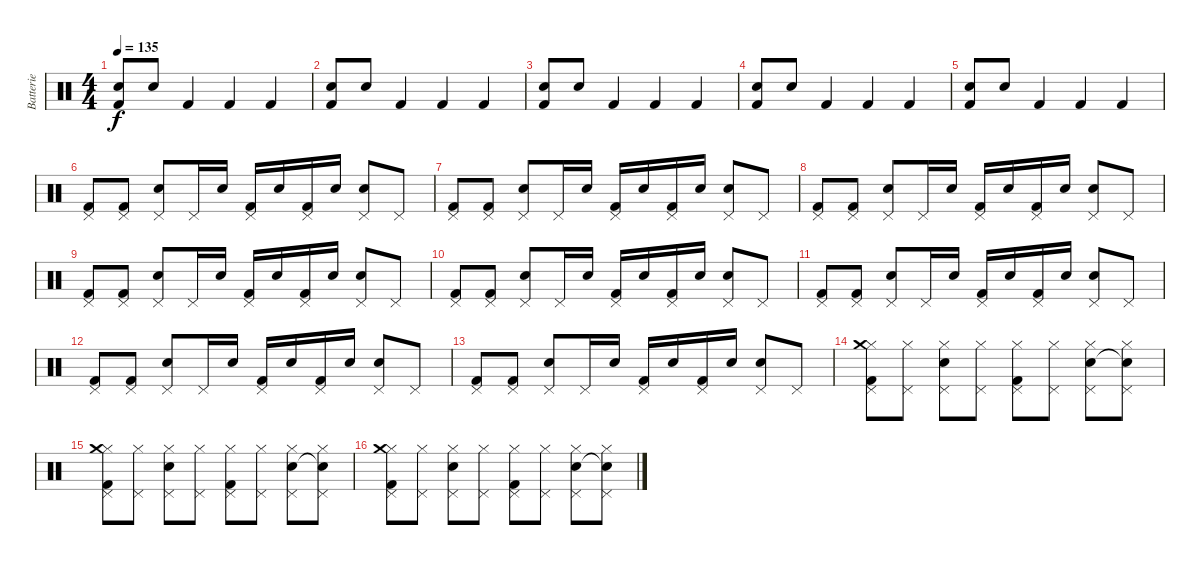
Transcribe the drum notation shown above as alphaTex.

\track ("Batterie" "Batterie") {instrument percussion}
\staff {score}
\articulation defaults
\ts (4 4)
\tempo 135
\clef neutral
\ks c
("Electric Snare (hit)" "Kick (hit) 2").8{dy f} "Electric Snare (hit)".8 "Kick (hit) 2".4 "Kick (hit) 2".4 "Kick (hit) 2".4 |
("Electric Snare (hit)" "Kick (hit) 2").8 "Electric Snare (hit)".8 "Kick (hit) 2".4 "Kick (hit) 2".4 "Kick (hit) 2".4 |
("Electric Snare (hit)" "Kick (hit) 2").8 "Electric Snare (hit)".8 "Kick (hit) 2".4 "Kick (hit) 2".4 "Kick (hit) 2".4 |
("Electric Snare (hit)" "Kick (hit) 2").8 "Electric Snare (hit)".8 "Kick (hit) 2".4 "Kick (hit) 2".4 "Kick (hit) 2".4 |
("Electric Snare (hit)" "Kick (hit) 2").8 "Electric Snare (hit)".8 "Kick (hit) 2".4 "Kick (hit) 2".4 "Kick (hit) 2".4 |
("Pedal Hi-Hat (hit)" "Kick (hit) 2").8 ("Pedal Hi-Hat (hit)" "Kick (hit) 2").8 ("Pedal Hi-Hat (hit)" "Electric Snare (hit)").8 "Pedal Hi-Hat (hit)".16 "Electric Snare (hit)".16 ("Pedal Hi-Hat (hit)" "Kick (hit) 2").16 "Electric Snare (hit)".16 ("Pedal Hi-Hat (hit)" "Kick (hit) 2").16 "Electric Snare (hit)".16 ("Pedal Hi-Hat (hit)" "Electric Snare (hit)").8 "Pedal Hi-Hat (hit)".8 |
("Pedal Hi-Hat (hit)" "Kick (hit) 2").8 ("Pedal Hi-Hat (hit)" "Kick (hit) 2").8 ("Pedal Hi-Hat (hit)" "Electric Snare (hit)").8 "Pedal Hi-Hat (hit)".16 "Electric Snare (hit)".16 ("Pedal Hi-Hat (hit)" "Kick (hit) 2").16 "Electric Snare (hit)".16 ("Pedal Hi-Hat (hit)" "Kick (hit) 2").16 "Electric Snare (hit)".16 ("Pedal Hi-Hat (hit)" "Electric Snare (hit)").8 "Pedal Hi-Hat (hit)".8 |
("Pedal Hi-Hat (hit)" "Kick (hit) 2").8 ("Pedal Hi-Hat (hit)" "Kick (hit) 2").8 ("Pedal Hi-Hat (hit)" "Electric Snare (hit)").8 "Pedal Hi-Hat (hit)".16 "Electric Snare (hit)".16 ("Pedal Hi-Hat (hit)" "Kick (hit) 2").16 "Electric Snare (hit)".16 ("Pedal Hi-Hat (hit)" "Kick (hit) 2").16 "Electric Snare (hit)".16 ("Pedal Hi-Hat (hit)" "Electric Snare (hit)").8 "Pedal Hi-Hat (hit)".8 |
("Pedal Hi-Hat (hit)" "Kick (hit) 2").8 ("Pedal Hi-Hat (hit)" "Kick (hit) 2").8 ("Pedal Hi-Hat (hit)" "Electric Snare (hit)").8 "Pedal Hi-Hat (hit)".16 "Electric Snare (hit)".16 ("Pedal Hi-Hat (hit)" "Kick (hit) 2").16 "Electric Snare (hit)".16 ("Pedal Hi-Hat (hit)" "Kick (hit) 2").16 "Electric Snare (hit)".16 ("Pedal Hi-Hat (hit)" "Electric Snare (hit)").8 "Pedal Hi-Hat (hit)".8 |
("Pedal Hi-Hat (hit)" "Kick (hit) 2").8 ("Pedal Hi-Hat (hit)" "Kick (hit) 2").8 ("Pedal Hi-Hat (hit)" "Electric Snare (hit)").8 "Pedal Hi-Hat (hit)".16 "Electric Snare (hit)".16 ("Pedal Hi-Hat (hit)" "Kick (hit) 2").16 "Electric Snare (hit)".16 ("Pedal Hi-Hat (hit)" "Kick (hit) 2").16 "Electric Snare (hit)".16 ("Pedal Hi-Hat (hit)" "Electric Snare (hit)").8 "Pedal Hi-Hat (hit)".8 |
("Pedal Hi-Hat (hit)" "Kick (hit) 2").8 ("Pedal Hi-Hat (hit)" "Kick (hit) 2").8 ("Pedal Hi-Hat (hit)" "Electric Snare (hit)").8 "Pedal Hi-Hat (hit)".16 "Electric Snare (hit)".16 ("Pedal Hi-Hat (hit)" "Kick (hit) 2").16 "Electric Snare (hit)".16 ("Pedal Hi-Hat (hit)" "Kick (hit) 2").16 "Electric Snare (hit)".16 ("Pedal Hi-Hat (hit)" "Electric Snare (hit)").8 "Pedal Hi-Hat (hit)".8 |
("Pedal Hi-Hat (hit)" "Kick (hit) 2").8 ("Pedal Hi-Hat (hit)" "Kick (hit) 2").8 ("Pedal Hi-Hat (hit)" "Electric Snare (hit)").8 "Pedal Hi-Hat (hit)".16 "Electric Snare (hit)".16 ("Pedal Hi-Hat (hit)" "Kick (hit) 2").16 "Electric Snare (hit)".16 ("Pedal Hi-Hat (hit)" "Kick (hit) 2").16 "Electric Snare (hit)".16 ("Pedal Hi-Hat (hit)" "Electric Snare (hit)").8 "Pedal Hi-Hat (hit)".8 |
("Pedal Hi-Hat (hit)" "Kick (hit) 2").8 ("Pedal Hi-Hat (hit)" "Kick (hit) 2").8 ("Pedal Hi-Hat (hit)" "Electric Snare (hit)").8 "Pedal Hi-Hat (hit)".16 "Electric Snare (hit)".16 ("Pedal Hi-Hat (hit)" "Kick (hit) 2").16 "Electric Snare (hit)".16 ("Pedal Hi-Hat (hit)" "Kick (hit) 2").16 "Electric Snare (hit)".16 ("Pedal Hi-Hat (hit)" "Electric Snare (hit)").8 "Pedal Hi-Hat (hit)".8 |
("Hi-Hat (closed)" "Pedal Hi-Hat (hit)" "Crash medium (hit)" "Kick (hit) 2").8 ("Hi-Hat (closed)" "Pedal Hi-Hat (hit)").8 ("Hi-Hat (closed)" "Pedal Hi-Hat (hit)" "Electric Snare (hit)").8 ("Hi-Hat (closed)" "Pedal Hi-Hat (hit)").8 ("Hi-Hat (closed)" "Pedal Hi-Hat (hit)" "Kick (hit) 2").8 ("Hi-Hat (closed)" "Pedal Hi-Hat (hit)").8 ("Hi-Hat (closed)" "Pedal Hi-Hat (hit)" "Electric Snare (hit)").8 ("Hi-Hat (closed)" "Pedal Hi-Hat (hit)" "Snare (hit)"{t}).8 |
("Hi-Hat (closed)" "Pedal Hi-Hat (hit)" "Crash medium (hit)" "Kick (hit) 2").8 ("Hi-Hat (closed)" "Pedal Hi-Hat (hit)").8 ("Hi-Hat (closed)" "Pedal Hi-Hat (hit)" "Electric Snare (hit)").8 ("Hi-Hat (closed)" "Pedal Hi-Hat (hit)").8 ("Hi-Hat (closed)" "Pedal Hi-Hat (hit)" "Kick (hit) 2").8 ("Hi-Hat (closed)" "Pedal Hi-Hat (hit)").8 ("Hi-Hat (closed)" "Pedal Hi-Hat (hit)" "Electric Snare (hit)").8 ("Hi-Hat (closed)" "Pedal Hi-Hat (hit)" "Snare (hit)"{t}).8 |
("Hi-Hat (closed)" "Pedal Hi-Hat (hit)" "Crash medium (hit)" "Kick (hit) 2").8 ("Hi-Hat (closed)" "Pedal Hi-Hat (hit)").8 ("Hi-Hat (closed)" "Pedal Hi-Hat (hit)" "Electric Snare (hit)").8 ("Hi-Hat (closed)" "Pedal Hi-Hat (hit)").8 ("Hi-Hat (closed)" "Pedal Hi-Hat (hit)" "Kick (hit) 2").8 ("Hi-Hat (closed)" "Pedal Hi-Hat (hit)").8 ("Hi-Hat (closed)" "Pedal Hi-Hat (hit)" "Electric Snare (hit)").8 ("Hi-Hat (closed)" "Pedal Hi-Hat (hit)" "Snare (hit)"{t}).8
